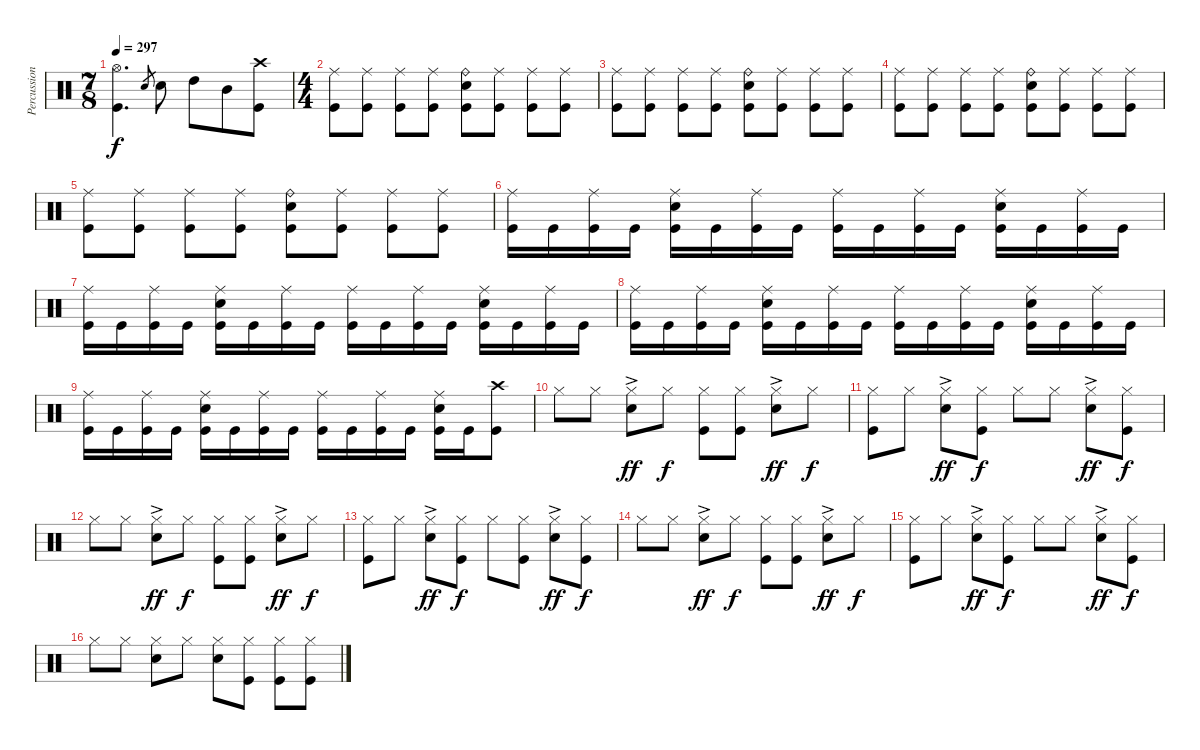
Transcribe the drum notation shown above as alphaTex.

\track ("Percussioni" "Percussion") {instrument percussion}
\staff {score}
\articulation defaults
\ts (7 8)
\tempo 297
\clef neutral
\ks c
("Kick (hit)" "Hi-Hat (open)").4{d dy f} "Snare (hit) 2".8{gr} "Snare (hit) 2".8 "High Tom (hit)".8 "Mid Tom (hit)".8 ("Kick (hit)" "Crash high (hit)").8 |
\ts (4 4)
("Ride (middle)" "Kick (hit)").8 ("Ride (middle)" "Kick (hit)").8 ("Ride (middle)" "Kick (hit)").8 ("Ride (middle)" "Kick (hit)").8 ("Ride (bell)" "Kick (hit)" "Snare (hit) 2").8 ("Ride (middle)" "Kick (hit)").8 ("Ride (middle)" "Kick (hit)").8 ("Ride (middle)" "Kick (hit)").8 |
("Ride (middle)" "Kick (hit)").8 ("Ride (middle)" "Kick (hit)").8 ("Ride (middle)" "Kick (hit)").8 ("Ride (middle)" "Kick (hit)").8 ("Ride (bell)" "Snare (hit) 2" "Kick (hit)").8 ("Ride (middle)" "Kick (hit)").8 ("Ride (middle)" "Kick (hit)").8 ("Ride (middle)" "Kick (hit)").8 |
("Ride (middle)" "Kick (hit)").8 ("Ride (middle)" "Kick (hit)").8 ("Ride (middle)" "Kick (hit)").8 ("Ride (middle)" "Kick (hit)").8 ("Ride (bell)" "Kick (hit)" "Snare (hit) 2").8 ("Ride (middle)" "Kick (hit)").8 ("Ride (middle)" "Kick (hit)").8 ("Ride (middle)" "Kick (hit)").8 |
("Ride (middle)" "Kick (hit)").8 ("Ride (middle)" "Kick (hit)").8 ("Ride (middle)" "Kick (hit)").8 ("Ride (middle)" "Kick (hit)").8 ("Ride (bell)" "Kick (hit)" "Snare (hit) 2").8 ("Ride (middle)" "Kick (hit)").8 ("Ride (middle)" "Kick (hit)").8 ("Ride (middle)" "Kick (hit)").8 |
("Ride (middle)" "Kick (hit)").16 "Kick (hit)".16 ("Kick (hit)" "Ride (middle)").16 "Kick (hit)".16 ("Kick (hit)" "Ride (middle)" "Snare (hit) 2").16 "Kick (hit)".16 ("Kick (hit)" "Ride (middle)").16 "Kick (hit)".16 ("Kick (hit)" "Ride (middle)").16 "Kick (hit)".16 ("Kick (hit)" "Ride (middle)").16 "Kick (hit)".16 ("Kick (hit)" "Ride (middle)" "Snare (hit) 2").16 "Kick (hit)".16 ("Kick (hit)" "Ride (middle)").16 "Kick (hit)".16 |
("Ride (middle)" "Kick (hit)").16 "Kick (hit)".16 ("Kick (hit)" "Ride (middle)").16 "Kick (hit)".16 ("Kick (hit)" "Ride (middle)" "Snare (hit) 2").16 "Kick (hit)".16 ("Kick (hit)" "Ride (middle)").16 "Kick (hit)".16 ("Kick (hit)" "Ride (middle)").16 "Kick (hit)".16 ("Kick (hit)" "Ride (middle)").16 "Kick (hit)".16 ("Kick (hit)" "Ride (middle)" "Snare (hit) 2").16 "Kick (hit)".16 ("Kick (hit)" "Ride (middle)").16 "Kick (hit)".16 |
("Ride (middle)" "Kick (hit)").16 "Kick (hit)".16 ("Kick (hit)" "Ride (middle)").16 "Kick (hit)".16 ("Kick (hit)" "Ride (middle)" "Snare (hit) 2").16 "Kick (hit)".16 ("Kick (hit)" "Ride (middle)").16 "Kick (hit)".16 ("Kick (hit)" "Ride (middle)").16 "Kick (hit)".16 ("Kick (hit)" "Ride (middle)").16 "Kick (hit)".16 ("Kick (hit)" "Ride (middle)" "Snare (hit) 2").16 "Kick (hit)".16 ("Kick (hit)" "Ride (middle)").16 "Kick (hit)".16 |
("Ride (middle)" "Kick (hit)").16 "Kick (hit)".16 ("Kick (hit)" "Ride (middle)").16 "Kick (hit)".16 ("Kick (hit)" "Ride (middle)" "Snare (hit) 2").16 "Kick (hit)".16 ("Kick (hit)" "Ride (middle)").16 "Kick (hit)".16 ("Kick (hit)" "Ride (middle)").16 "Kick (hit)".16 ("Kick (hit)" "Ride (middle)").16 "Kick (hit)".16 ("Kick (hit)" "Ride (middle)" "Snare (hit) 2").16 "Kick (hit)".16 ("Kick (hit)" "Crash high (hit)").8 |
"Hi-Hat (closed)".8 "Hi-Hat (closed)".8 ("Hi-Hat (closed)"{ac} "Snare (hit) 2").8{dy ff} "Hi-Hat (closed)".8{dy f} ("Hi-Hat (closed)" "Kick (hit)").8 ("Hi-Hat (closed)" "Kick (hit)").8 ("Hi-Hat (closed)"{ac} "Snare (hit) 2").8{dy ff} "Hi-Hat (closed)".8{dy f} |
("Hi-Hat (closed)" "Kick (hit)").8 "Hi-Hat (closed)".8 ("Hi-Hat (closed)"{ac} "Snare (hit) 2").8{dy ff} ("Hi-Hat (closed)" "Kick (hit)").8{dy f} "Hi-Hat (closed)".8 "Hi-Hat (closed)".8 ("Hi-Hat (closed)"{ac} "Snare (hit) 2").8{dy ff} ("Hi-Hat (closed)" "Kick (hit)").8{dy f} |
"Hi-Hat (closed)".8 "Hi-Hat (closed)".8 ("Hi-Hat (closed)"{ac} "Snare (hit) 2").8{dy ff} "Hi-Hat (closed)".8{dy f} ("Hi-Hat (closed)" "Kick (hit)").8 ("Hi-Hat (closed)" "Kick (hit)").8 ("Hi-Hat (closed)"{ac} "Snare (hit) 2").8{dy ff} "Hi-Hat (closed)".8{dy f} |
("Hi-Hat (closed)" "Kick (hit)").8 "Hi-Hat (closed)".8 ("Hi-Hat (closed)"{ac} "Snare (hit) 2").8{dy ff} ("Hi-Hat (closed)" "Kick (hit)").8{dy f} "Hi-Hat (closed)".8 ("Hi-Hat (closed)" "Kick (hit)").8 ("Hi-Hat (closed)"{ac} "Snare (hit) 2").8{dy ff} ("Hi-Hat (closed)" "Kick (hit)").8{dy f} |
"Hi-Hat (closed)".8 "Hi-Hat (closed)".8 ("Hi-Hat (closed)"{ac} "Snare (hit) 2").8{dy ff} "Hi-Hat (closed)".8{dy f} ("Hi-Hat (closed)" "Kick (hit)").8 ("Hi-Hat (closed)" "Kick (hit)").8 ("Hi-Hat (closed)"{ac} "Snare (hit) 2").8{dy ff} "Hi-Hat (closed)".8{dy f} |
("Hi-Hat (closed)" "Kick (hit)").8 "Hi-Hat (closed)".8 ("Hi-Hat (closed)"{ac} "Snare (hit) 2").8{dy ff} ("Hi-Hat (closed)" "Kick (hit)").8{dy f} "Hi-Hat (closed)".8 "Hi-Hat (closed)".8 ("Hi-Hat (closed)"{ac} "Snare (hit) 2").8{dy ff} ("Hi-Hat (closed)" "Kick (hit)").8{dy f} |
"Hi-Hat (closed)".8 "Hi-Hat (closed)".8 ("Hi-Hat (closed)" "Snare (hit) 2").8 "Hi-Hat (closed)".8 ("Snare (hit) 2" "Hi-Hat (closed)").8 ("Hi-Hat (closed)" "Kick (hit)").8 ("Hi-Hat (closed)" "Kick (hit)").8 ("Hi-Hat (closed)" "Kick (hit)").8
